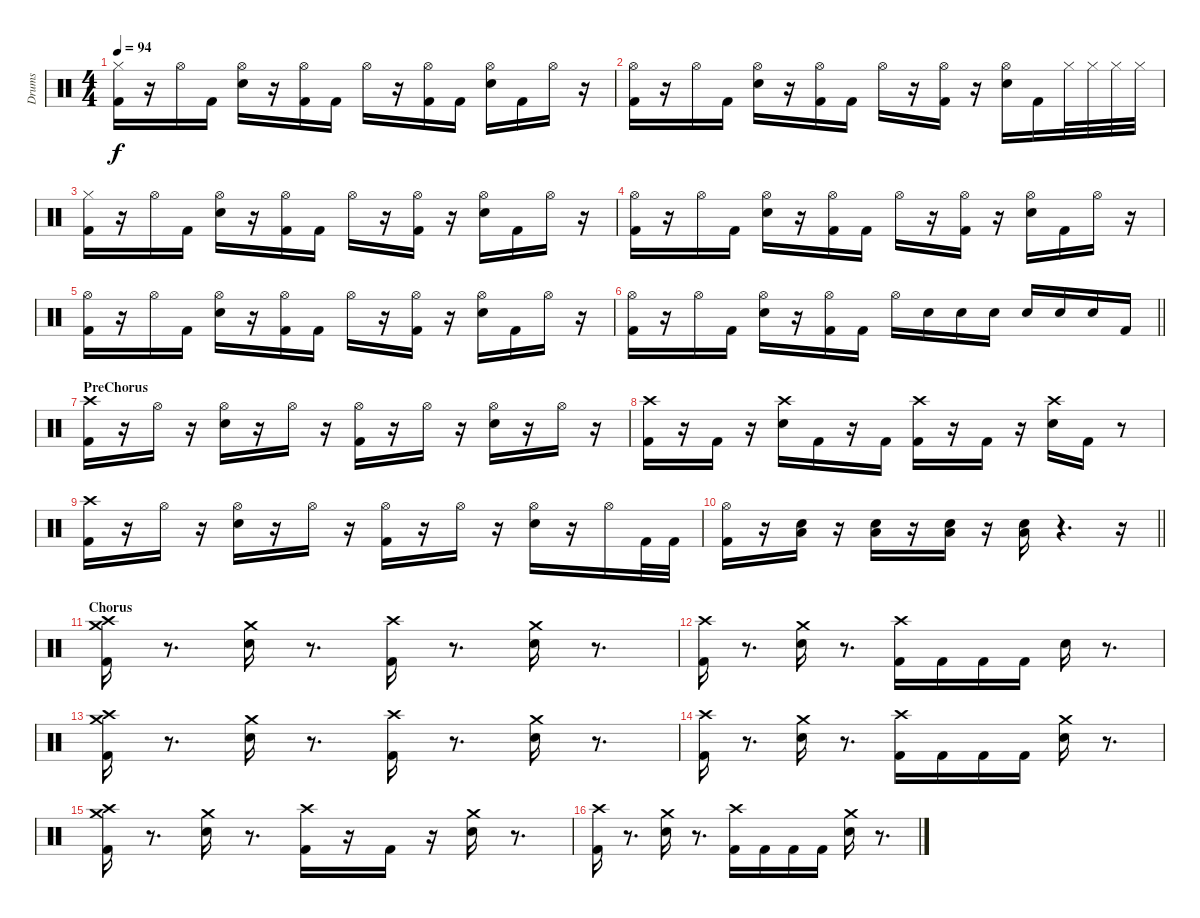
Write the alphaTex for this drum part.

\track ("Drums" "Drums") {instrument percussion}
\staff {score}
\articulation defaults
\ts (4 4)
\tempo 94
\clef neutral
\ks c
("Kick (hit) 2" "Hi-Hat (closed)").16{dy f} r.16 "Hi-Hat (open)".16 "Kick (hit) 2".16 ("Snare (hit) 2" "Hi-Hat (open)").16 r.16 ("Kick (hit) 2" "Hi-Hat (open)").16 "Kick (hit) 2".16 "Hi-Hat (open)".16 r.16 ("Kick (hit) 2" "Hi-Hat (open)").16 "Kick (hit) 2".16 ("Snare (hit) 2" "Hi-Hat (open)").16 "Kick (hit) 2".16 "Hi-Hat (open)".16 r.16 |
("Kick (hit) 2" "Hi-Hat (open)").16 r.16 "Hi-Hat (open)".16 "Kick (hit) 2".16 ("Snare (hit) 2" "Hi-Hat (open)").16 r.16 ("Kick (hit) 2" "Hi-Hat (open)").16 "Kick (hit) 2".16 "Hi-Hat (open)".16 r.16 ("Kick (hit) 2" "Hi-Hat (open)").16 r.16 ("Snare (hit) 2" "Hi-Hat (open)").16 "Kick (hit) 2".16 "Hi-Hat (closed)".32 "Hi-Hat (closed)".32 "Hi-Hat (closed)".32 "Hi-Hat (closed)".32 |
("Kick (hit) 2" "Hi-Hat (closed)").16 r.16 "Hi-Hat (open)".16 "Kick (hit) 2".16 ("Snare (hit) 2" "Hi-Hat (open)").16 r.16 ("Kick (hit) 2" "Hi-Hat (open)").16 "Kick (hit) 2".16 "Hi-Hat (open)".16 r.16 ("Kick (hit) 2" "Hi-Hat (open)").16 r.16 ("Snare (hit) 2" "Hi-Hat (open)").16 "Kick (hit) 2".16 "Hi-Hat (open)".16 r.16 |
("Kick (hit) 2" "Hi-Hat (open)").16 r.16 "Hi-Hat (open)".16 "Kick (hit) 2".16 ("Snare (hit) 2" "Hi-Hat (open)").16 r.16 ("Kick (hit) 2" "Hi-Hat (open)").16 "Kick (hit) 2".16 "Hi-Hat (open)".16 r.16 ("Kick (hit) 2" "Hi-Hat (open)").16 r.16 ("Snare (hit) 2" "Hi-Hat (open)").16 "Kick (hit) 2".16 "Hi-Hat (open)".16 r.16 |
("Kick (hit) 2" "Hi-Hat (open)").16 r.16 "Hi-Hat (open)".16 "Kick (hit) 2".16 ("Snare (hit) 2" "Hi-Hat (open)").16 r.16 ("Kick (hit) 2" "Hi-Hat (open)").16 "Kick (hit) 2".16 "Hi-Hat (open)".16 r.16 ("Kick (hit) 2" "Hi-Hat (open)").16 r.16 ("Snare (hit) 2" "Hi-Hat (open)").16 "Kick (hit) 2".16 "Hi-Hat (open)".16 r.16 |
\barLineRight lightlight
("Kick (hit) 2" "Hi-Hat (open)").16 r.16 "Hi-Hat (open)".16 "Kick (hit) 2".16 ("Snare (hit) 2" "Hi-Hat (open)").16 r.16 ("Kick (hit) 2" "Hi-Hat (open)").16 "Kick (hit) 2".16 "Hi-Hat (open)".16 "Snare (hit) 2".16 "Snare (hit) 2".16 "Snare (hit) 2".16 "Snare (hit) 2".16 "Snare (hit) 2".16 "Snare (hit) 2".16 "Kick (hit) 2".16 |
\section ("" "PreChorus")
("Kick (hit) 2" "Crash high (hit)").16 r.16 "Hi-Hat (open)".16 r.16 ("Snare (hit) 2" "Hi-Hat (open)").16 r.16 "Hi-Hat (open)".16 r.16 ("Kick (hit) 2" "Hi-Hat (open)").16 r.16 "Hi-Hat (open)".16 r.16 ("Snare (hit) 2" "Hi-Hat (open)").16 r.16 "Hi-Hat (open)".16 r.16 |
("Kick (hit) 2" "Crash high (hit)").16 r.16 "Kick (hit) 2".16 r.16 ("Snare (hit) 2" "Crash high (hit)").16 "Kick (hit) 2".16 r.16 "Kick (hit) 2".16 ("Kick (hit) 2" "Crash high (hit)").16 r.16 "Kick (hit) 2".16 r.16 ("Snare (hit) 2" "Crash high (hit)").16 "Kick (hit) 2".16 r.8 |
("Kick (hit) 2" "Crash high (hit)").16 r.16 "Hi-Hat (open)".16 r.16 ("Snare (hit) 2" "Hi-Hat (open)").16 r.16 "Hi-Hat (open)".16 r.16 ("Kick (hit) 2" "Hi-Hat (open)").16 r.16 "Hi-Hat (open)".16 r.16 ("Snare (hit) 2" "Hi-Hat (open)").16 r.16 "Hi-Hat (open)".16 "Kick (hit) 2".32 "Kick (hit) 2".32 |
\barLineRight lightlight
("Kick (hit) 2" "Hi-Hat (open)").16 r.16 ("Snare (hit) 2" "Low Floor Tom (hit)").16 r.16 ("Snare (hit) 2" "Low Floor Tom (hit)").16 r.16 ("Snare (hit) 2" "Low Floor Tom (hit)").16 r.16 ("Snare (hit) 2" "Low Floor Tom (hit)").16 r.4{d} r.16 |
\section ("" "Chorus")
("Kick (hit) 2" "Crash high (hit)" "Crash medium (hit)").16 r.8{d} ("Snare (hit) 2" "Crash medium (hit)").16 r.8{d} ("Kick (hit) 2" "Crash high (hit)").16 r.8{d} ("Snare (hit) 2" "Crash medium (hit)").16 r.8{d} |
("Kick (hit) 2" "Crash high (hit)").16 r.8{d} ("Snare (hit) 2" "Crash medium (hit)").16 r.8{d} ("Kick (hit) 2" "Crash high (hit)").16 "Kick (hit) 2".16 "Kick (hit) 2".16 "Kick (hit) 2".16 "Snare (hit) 2".16 r.8{d} |
("Kick (hit) 2" "Crash high (hit)" "Crash medium (hit)").16 r.8{d} ("Snare (hit) 2" "Crash medium (hit)").16 r.8{d} ("Kick (hit) 2" "Crash high (hit)").16 r.8{d} ("Snare (hit) 2" "Crash medium (hit)").16 r.8{d} |
("Kick (hit) 2" "Crash high (hit)").16 r.8{d} ("Snare (hit) 2" "Crash medium (hit)").16 r.8{d} ("Kick (hit) 2" "Crash high (hit)").16 "Kick (hit) 2".16 "Kick (hit) 2".16 "Kick (hit) 2".16 ("Snare (hit) 2" "Crash medium (hit)").16 r.8{d} |
("Kick (hit) 2" "Crash high (hit)" "Crash medium (hit)").16 r.8{d} ("Snare (hit) 2" "Crash medium (hit)").16 r.8{d} ("Kick (hit) 2" "Crash high (hit)").16 r.16 "Kick (hit) 2".16 r.16 ("Snare (hit) 2" "Crash medium (hit)").16 r.8{d} |
("Kick (hit) 2" "Crash high (hit)").16 r.8{d} ("Snare (hit) 2" "Crash medium (hit)").16 r.8{d} ("Kick (hit) 2" "Crash high (hit)").16 "Kick (hit) 2".16 "Kick (hit) 2".16 "Kick (hit) 2".16 ("Snare (hit) 2" "Crash medium (hit)").16 r.8{d}
